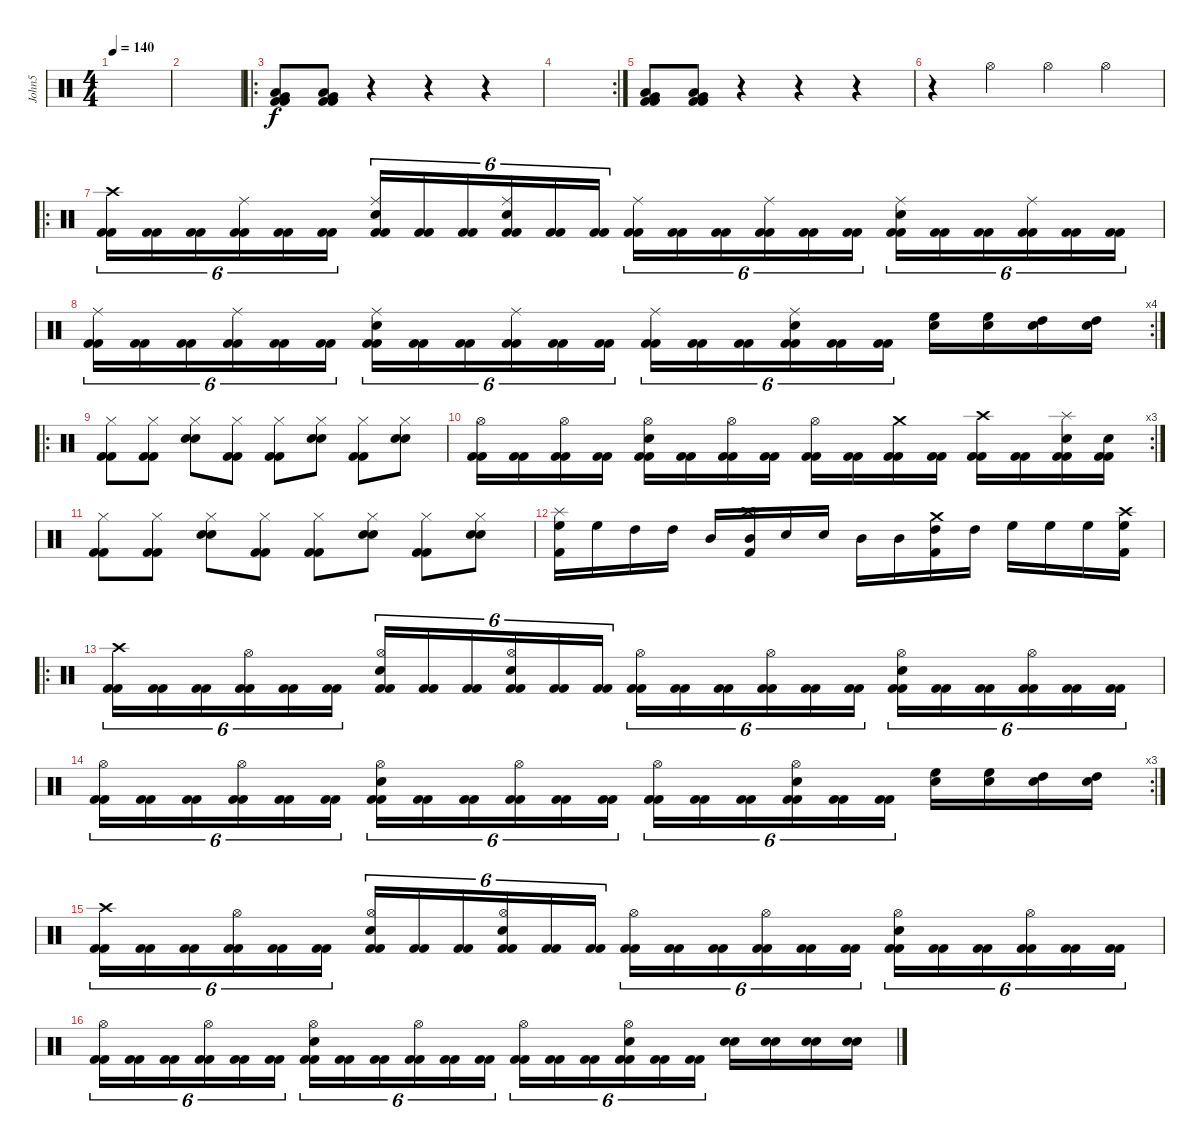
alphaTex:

\track ("John5" "John5") {instrument percussion}
\staff {score}
\articulation defaults
\ts (4 4)
\tempo 140
\clef neutral
\ks c
|
|
\ro
("Very Low Tom (hit)" "Low Floor Tom (hit)" "Kick (hit) 2" "Kick (hit) 2").8 ("Very Low Tom (hit)" "Low Floor Tom (hit)" "Kick (hit) 2" "Kick (hit) 2").8 r.4 r.4 r.4 |
\rc 2
|
("Very Low Tom (hit)" "Low Floor Tom (hit)" "Kick (hit) 2" "Kick (hit) 2").8 ("Very Low Tom (hit)" "Low Floor Tom (hit)" "Kick (hit) 2" "Kick (hit) 2").8 r.4 r.4 r.4 |
r.4 "Hi-Hat (open)".4 "Hi-Hat (open)".4 "Hi-Hat (open)".4 |
\ro
("Crash high (hit)" "Kick (hit) 2" "Kick (hit) 2").16{tu (6 4)} ("Kick (hit) 2" "Kick (hit) 2").16{tu (6 4)} ("Kick (hit) 2" "Kick (hit) 2").16{tu (6 4)} ("Ride (middle)" "Kick (hit) 2" "Kick (hit) 2").16{tu (6 4)} ("Kick (hit) 2" "Kick (hit) 2").16{tu (6 4)} ("Kick (hit) 2" "Kick (hit) 2").16{tu (6 4)} ("Ride (middle)" "Electric Snare (hit)" "Kick (hit) 2" "Kick (hit) 2").16{tu (6 4)} ("Kick (hit) 2" "Kick (hit) 2").16{tu (6 4)} ("Kick (hit) 2" "Kick (hit) 2").16{tu (6 4)} ("Ride (middle)" "Electric Snare (hit)" "Kick (hit) 2" "Kick (hit) 2").16{tu (6 4)} ("Kick (hit) 2" "Kick (hit) 2").16{tu (6 4)} ("Kick (hit) 2" "Kick (hit) 2").16{tu (6 4)} ("Ride (middle)" "Kick (hit) 2" "Kick (hit) 2").16{tu (6 4)} ("Kick (hit) 2" "Kick (hit) 2").16{tu (6 4)} ("Kick (hit) 2" "Kick (hit) 2").16{tu (6 4)} ("Ride (middle)" "Kick (hit) 2" "Kick (hit) 2").16{tu (6 4)} ("Kick (hit) 2" "Kick (hit) 2").16{tu (6 4)} ("Kick (hit) 2" "Kick (hit) 2").16{tu (6 4)} ("Ride (middle)" "Electric Snare (hit)" "Kick (hit) 2" "Kick (hit) 2").16{tu (6 4)} ("Kick (hit) 2" "Kick (hit) 2").16{tu (6 4)} ("Kick (hit) 2" "Kick (hit) 2").16{tu (6 4)} ("Ride (middle)" "Kick (hit) 2" "Kick (hit) 2").16{tu (6 4)} ("Kick (hit) 2" "Kick (hit) 2").16{tu (6 4)} ("Kick (hit) 2" "Kick (hit) 2").16{tu (6 4)} |
\rc 4
("Ride (middle)" "Kick (hit) 2" "Kick (hit) 2").16{tu (6 4)} ("Kick (hit) 2" "Kick (hit) 2").16{tu (6 4)} ("Kick (hit) 2" "Kick (hit) 2").16{tu (6 4)} ("Ride (middle)" "Kick (hit) 2" "Kick (hit) 2").16{tu (6 4)} ("Kick (hit) 2" "Kick (hit) 2").16{tu (6 4)} ("Kick (hit) 2" "Kick (hit) 2").16{tu (6 4)} ("Ride (middle)" "Electric Snare (hit)" "Kick (hit) 2" "Kick (hit) 2").16{tu (6 4)} ("Kick (hit) 2" "Kick (hit) 2").16{tu (6 4)} ("Kick (hit) 2" "Kick (hit) 2").16{tu (6 4)} ("Ride (middle)" "Kick (hit) 2" "Kick (hit) 2").16{tu (6 4)} ("Kick (hit) 2" "Kick (hit) 2").16{tu (6 4)} ("Kick (hit) 2" "Kick (hit) 2").16{tu (6 4)} ("Ride (middle)" "Kick (hit) 2" "Kick (hit) 2").16{tu (6 4)} ("Kick (hit) 2" "Kick (hit) 2").16{tu (6 4)} ("Kick (hit) 2" "Kick (hit) 2").16{tu (6 4)} ("Ride (middle)" "Electric Snare (hit)" "Kick (hit) 2" "Kick (hit) 2").16{tu (6 4)} ("Kick (hit) 2" "Kick (hit) 2").16{tu (6 4)} ("Kick (hit) 2" "Kick (hit) 2").16{tu (6 4)} ("High Floor Tom (hit)" "Snare (hit)").16 ("High Floor Tom (hit)" "Snare (hit)").16 ("High Tom (hit)" "Snare (hit)").16 ("High Tom (hit)" "Snare (hit)").16 |
\ro
("Hi-Hat (closed)" "Kick (hit) 2" "Kick (hit) 2").8 ("Hi-Hat (closed)" "Kick (hit) 2" "Kick (hit) 2").8 ("Hi-Hat (closed)" "Electric Snare (hit)" "Snare (hit)").8 ("Hi-Hat (closed)" "Kick (hit) 2" "Kick (hit) 2").8 ("Hi-Hat (closed)" "Kick (hit) 2" "Kick (hit) 2").8 ("Hi-Hat (closed)" "Electric Snare (hit)" "Snare (hit)").8 ("Hi-Hat (closed)" "Kick (hit) 2" "Kick (hit) 2").8 ("Hi-Hat (closed)" "Electric Snare (hit)" "Snare (hit)").8 |
\rc 3
("Hi-Hat (open)" "Kick (hit) 2" "Kick (hit) 2").16 ("Kick (hit) 2" "Kick (hit) 2").16 ("Hi-Hat (open)" "Kick (hit) 2" "Kick (hit) 2").16 ("Kick (hit) 2" "Kick (hit) 2").16 ("Hi-Hat (open)" "Electric Snare (hit)" "Kick (hit) 2" "Kick (hit) 2").16 ("Kick (hit) 2" "Kick (hit) 2").16 ("Hi-Hat (open)" "Kick (hit) 2" "Kick (hit) 2").16 ("Kick (hit) 2" "Kick (hit) 2").16 ("Hi-Hat (open)" "Kick (hit) 2" "Kick (hit) 2").16 ("Kick (hit) 2" "Kick (hit) 2").16 ("Crash medium (hit)" "Kick (hit) 2" "Kick (hit) 2").16 ("Kick (hit) 2" "Kick (hit) 2").16 ("Crash high (hit)" "Kick (hit) 2" "Kick (hit) 2").16 ("Kick (hit) 2" "Kick (hit) 2").16 ("Splash (hit)" "Electric Snare (hit)" "Kick (hit) 2" "Kick (hit) 2").16 ("Electric Snare (hit)" "Kick (hit) 2" "Kick (hit) 2").16 |
("Hi-Hat (closed)" "Kick (hit) 2" "Kick (hit) 2").8 ("Hi-Hat (closed)" "Kick (hit) 2" "Kick (hit) 2").8 ("Hi-Hat (closed)" "Electric Snare (hit)" "Snare (hit)").8 ("Hi-Hat (closed)" "Kick (hit) 2" "Kick (hit) 2").8 ("Hi-Hat (closed)" "Kick (hit) 2" "Kick (hit) 2").8 ("Hi-Hat (closed)" "Electric Snare (hit)" "Snare (hit)").8 ("Hi-Hat (closed)" "Kick (hit) 2" "Kick (hit) 2").8 ("Hi-Hat (closed)" "Electric Snare (hit)" "Snare (hit)").8 |
("High Floor Tom (hit)" "Splash (hit)" "Kick (hit) 2").16 "High Floor Tom (hit)".16 "High Tom (hit)".16 "High Tom (hit)".16 "Mid Tom (hit)".16 ("Crash high (hit)" "Mid Tom (hit)" "Kick (hit) 2").16 "Electric Snare (hit)".16 "Electric Snare (hit)".16 "Mid Tom (hit)".16 "Mid Tom (hit)".16 ("Crash medium (hit)" "High Tom (hit)" "Kick (hit) 2").16 "High Tom (hit)".16 "High Floor Tom (hit)".16 "High Floor Tom (hit)".16 "High Floor Tom (hit)".16 ("High Floor Tom (hit)" "Crash high (hit)" "Kick (hit) 2").16 |
\ro
("Crash high (hit)" "Kick (hit) 2" "Kick (hit) 2").16{tu (6 4)} ("Kick (hit) 2" "Kick (hit) 2").16{tu (6 4)} ("Kick (hit) 2" "Kick (hit) 2").16{tu (6 4)} ("Hi-Hat (open)" "Kick (hit) 2" "Kick (hit) 2").16{tu (6 4)} ("Kick (hit) 2" "Kick (hit) 2").16{tu (6 4)} ("Kick (hit) 2" "Kick (hit) 2").16{tu (6 4)} ("Hi-Hat (open)" "Electric Snare (hit)" "Kick (hit) 2" "Kick (hit) 2").16{tu (6 4)} ("Kick (hit) 2" "Kick (hit) 2").16{tu (6 4)} ("Kick (hit) 2" "Kick (hit) 2").16{tu (6 4)} ("Hi-Hat (open)" "Electric Snare (hit)" "Kick (hit) 2" "Kick (hit) 2").16{tu (6 4)} ("Kick (hit) 2" "Kick (hit) 2").16{tu (6 4)} ("Kick (hit) 2" "Kick (hit) 2").16{tu (6 4)} ("Hi-Hat (open)" "Kick (hit) 2" "Kick (hit) 2").16{tu (6 4)} ("Kick (hit) 2" "Kick (hit) 2").16{tu (6 4)} ("Kick (hit) 2" "Kick (hit) 2").16{tu (6 4)} ("Hi-Hat (open)" "Kick (hit) 2" "Kick (hit) 2").16{tu (6 4)} ("Kick (hit) 2" "Kick (hit) 2").16{tu (6 4)} ("Kick (hit) 2" "Kick (hit) 2").16{tu (6 4)} ("Hi-Hat (open)" "Electric Snare (hit)" "Kick (hit) 2" "Kick (hit) 2").16{tu (6 4)} ("Kick (hit) 2" "Kick (hit) 2").16{tu (6 4)} ("Kick (hit) 2" "Kick (hit) 2").16{tu (6 4)} ("Hi-Hat (open)" "Kick (hit) 2" "Kick (hit) 2").16{tu (6 4)} ("Kick (hit) 2" "Kick (hit) 2").16{tu (6 4)} ("Kick (hit) 2" "Kick (hit) 2").16{tu (6 4)} |
\rc 3
("Hi-Hat (open)" "Kick (hit) 2" "Kick (hit) 2").16{tu (6 4)} ("Kick (hit) 2" "Kick (hit) 2").16{tu (6 4)} ("Kick (hit) 2" "Kick (hit) 2").16{tu (6 4)} ("Hi-Hat (open)" "Kick (hit) 2" "Kick (hit) 2").16{tu (6 4)} ("Kick (hit) 2" "Kick (hit) 2").16{tu (6 4)} ("Kick (hit) 2" "Kick (hit) 2").16{tu (6 4)} ("Hi-Hat (open)" "Electric Snare (hit)" "Kick (hit) 2" "Kick (hit) 2").16{tu (6 4)} ("Kick (hit) 2" "Kick (hit) 2").16{tu (6 4)} ("Kick (hit) 2" "Kick (hit) 2").16{tu (6 4)} ("Hi-Hat (open)" "Kick (hit) 2" "Kick (hit) 2").16{tu (6 4)} ("Kick (hit) 2" "Kick (hit) 2").16{tu (6 4)} ("Kick (hit) 2" "Kick (hit) 2").16{tu (6 4)} ("Hi-Hat (open)" "Kick (hit) 2" "Kick (hit) 2").16{tu (6 4)} ("Kick (hit) 2" "Kick (hit) 2").16{tu (6 4)} ("Kick (hit) 2" "Kick (hit) 2").16{tu (6 4)} ("Hi-Hat (open)" "Electric Snare (hit)" "Kick (hit) 2" "Kick (hit) 2").16{tu (6 4)} ("Kick (hit) 2" "Kick (hit) 2").16{tu (6 4)} ("Kick (hit) 2" "Kick (hit) 2").16{tu (6 4)} ("High Floor Tom (hit)" "Snare (hit)").16 ("High Floor Tom (hit)" "Snare (hit)").16 ("High Tom (hit)" "Snare (hit)").16 ("High Tom (hit)" "Snare (hit)").16 |
("Crash high (hit)" "Kick (hit) 2" "Kick (hit) 2").16{tu (6 4)} ("Kick (hit) 2" "Kick (hit) 2").16{tu (6 4)} ("Kick (hit) 2" "Kick (hit) 2").16{tu (6 4)} ("Hi-Hat (open)" "Kick (hit) 2" "Kick (hit) 2").16{tu (6 4)} ("Kick (hit) 2" "Kick (hit) 2").16{tu (6 4)} ("Kick (hit) 2" "Kick (hit) 2").16{tu (6 4)} ("Hi-Hat (open)" "Electric Snare (hit)" "Kick (hit) 2" "Kick (hit) 2").16{tu (6 4)} ("Kick (hit) 2" "Kick (hit) 2").16{tu (6 4)} ("Kick (hit) 2" "Kick (hit) 2").16{tu (6 4)} ("Hi-Hat (open)" "Electric Snare (hit)" "Kick (hit) 2" "Kick (hit) 2").16{tu (6 4)} ("Kick (hit) 2" "Kick (hit) 2").16{tu (6 4)} ("Kick (hit) 2" "Kick (hit) 2").16{tu (6 4)} ("Hi-Hat (open)" "Kick (hit) 2" "Kick (hit) 2").16{tu (6 4)} ("Kick (hit) 2" "Kick (hit) 2").16{tu (6 4)} ("Kick (hit) 2" "Kick (hit) 2").16{tu (6 4)} ("Hi-Hat (open)" "Kick (hit) 2" "Kick (hit) 2").16{tu (6 4)} ("Kick (hit) 2" "Kick (hit) 2").16{tu (6 4)} ("Kick (hit) 2" "Kick (hit) 2").16{tu (6 4)} ("Hi-Hat (open)" "Electric Snare (hit)" "Kick (hit) 2" "Kick (hit) 2").16{tu (6 4)} ("Kick (hit) 2" "Kick (hit) 2").16{tu (6 4)} ("Kick (hit) 2" "Kick (hit) 2").16{tu (6 4)} ("Hi-Hat (open)" "Kick (hit) 2" "Kick (hit) 2").16{tu (6 4)} ("Kick (hit) 2" "Kick (hit) 2").16{tu (6 4)} ("Kick (hit) 2" "Kick (hit) 2").16{tu (6 4)} |
("Hi-Hat (open)" "Kick (hit) 2" "Kick (hit) 2").16{tu (6 4)} ("Kick (hit) 2" "Kick (hit) 2").16{tu (6 4)} ("Kick (hit) 2" "Kick (hit) 2").16{tu (6 4)} ("Hi-Hat (open)" "Kick (hit) 2" "Kick (hit) 2").16{tu (6 4)} ("Kick (hit) 2" "Kick (hit) 2").16{tu (6 4)} ("Kick (hit) 2" "Kick (hit) 2").16{tu (6 4)} ("Hi-Hat (open)" "Electric Snare (hit)" "Kick (hit) 2" "Kick (hit) 2").16{tu (6 4)} ("Kick (hit) 2" "Kick (hit) 2").16{tu (6 4)} ("Kick (hit) 2" "Kick (hit) 2").16{tu (6 4)} ("Hi-Hat (open)" "Kick (hit) 2" "Kick (hit) 2").16{tu (6 4)} ("Kick (hit) 2" "Kick (hit) 2").16{tu (6 4)} ("Kick (hit) 2" "Kick (hit) 2").16{tu (6 4)} ("Hi-Hat (open)" "Kick (hit) 2" "Kick (hit) 2").16{tu (6 4)} ("Kick (hit) 2" "Kick (hit) 2").16{tu (6 4)} ("Kick (hit) 2" "Kick (hit) 2").16{tu (6 4)} ("Hi-Hat (open)" "Electric Snare (hit)" "Kick (hit) 2" "Kick (hit) 2").16{tu (6 4)} ("Kick (hit) 2" "Kick (hit) 2").16{tu (6 4)} ("Kick (hit) 2" "Kick (hit) 2").16{tu (6 4)} ("Electric Snare (hit)" "Snare (hit)").16 ("Electric Snare (hit)" "Snare (hit)").16 ("Electric Snare (hit)" "Snare (hit)").16 ("Electric Snare (hit)" "Snare (hit)").16
